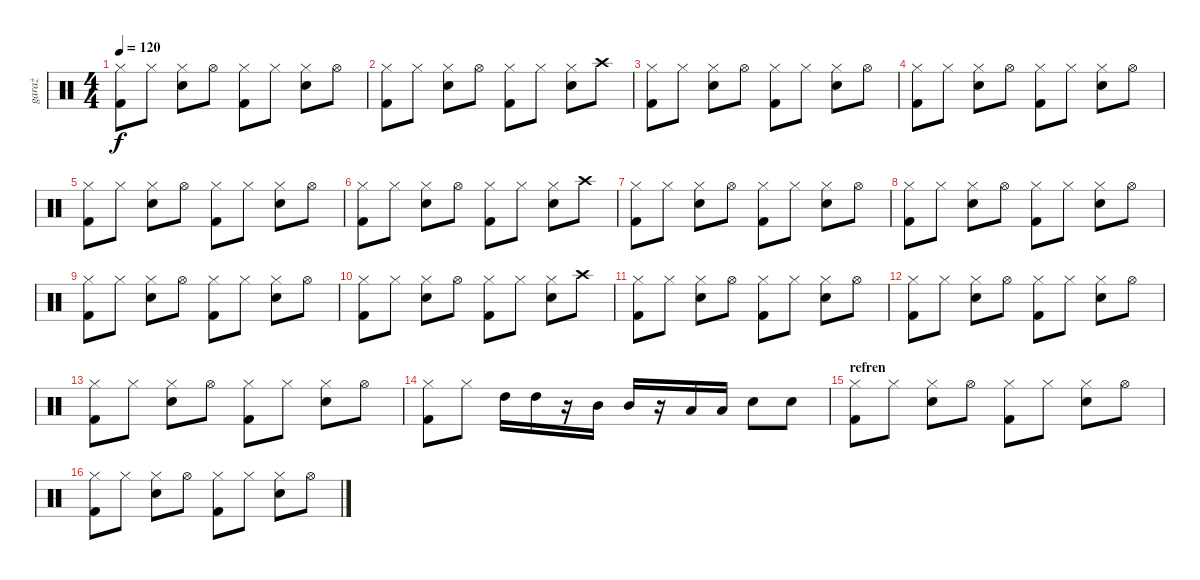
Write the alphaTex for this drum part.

\track ("garaż" "garaż") {instrument percussion}
\staff {score}
\articulation defaults
\ts (4 4)
\tempo 120
\clef neutral
\ks c
("Hi-Hat (closed)" "Kick (hit) 2").8{dy f} "Hi-Hat (closed)".8 ("Hi-Hat (closed)" "Snare (hit) 2").8 "Hi-Hat (open)".8 ("Hi-Hat (closed)" "Kick (hit) 2").8 "Hi-Hat (closed)".8 ("Hi-Hat (closed)" "Snare (hit) 2").8 "Hi-Hat (open)".8 |
("Hi-Hat (closed)" "Kick (hit) 2").8 "Hi-Hat (closed)".8 ("Hi-Hat (closed)" "Snare (hit) 2").8 "Hi-Hat (open)".8 ("Hi-Hat (closed)" "Kick (hit) 2").8 "Hi-Hat (closed)".8 ("Hi-Hat (closed)" "Snare (hit) 2").8 "Crash high (hit)".8 |
("Hi-Hat (closed)" "Kick (hit) 2").8 "Hi-Hat (closed)".8 ("Hi-Hat (closed)" "Snare (hit) 2").8 "Hi-Hat (open)".8 ("Hi-Hat (closed)" "Kick (hit) 2").8 "Hi-Hat (closed)".8 ("Hi-Hat (closed)" "Snare (hit) 2").8 "Hi-Hat (open)".8 |
("Hi-Hat (closed)" "Kick (hit) 2").8 "Hi-Hat (closed)".8 ("Hi-Hat (closed)" "Snare (hit) 2").8 "Hi-Hat (open)".8 ("Hi-Hat (closed)" "Kick (hit) 2").8 "Hi-Hat (closed)".8 ("Hi-Hat (closed)" "Snare (hit) 2").8 "Hi-Hat (open)".8 |
("Hi-Hat (closed)" "Kick (hit) 2").8 "Hi-Hat (closed)".8 ("Hi-Hat (closed)" "Snare (hit) 2").8 "Hi-Hat (open)".8 ("Hi-Hat (closed)" "Kick (hit) 2").8 "Hi-Hat (closed)".8 ("Hi-Hat (closed)" "Snare (hit) 2").8 "Hi-Hat (open)".8 |
("Hi-Hat (closed)" "Kick (hit) 2").8 "Hi-Hat (closed)".8 ("Hi-Hat (closed)" "Snare (hit) 2").8 "Hi-Hat (open)".8 ("Hi-Hat (closed)" "Kick (hit) 2").8 "Hi-Hat (closed)".8 ("Hi-Hat (closed)" "Snare (hit) 2").8 "Crash high (hit)".8 |
("Hi-Hat (closed)" "Kick (hit) 2").8 "Hi-Hat (closed)".8 ("Hi-Hat (closed)" "Snare (hit) 2").8 "Hi-Hat (open)".8 ("Hi-Hat (closed)" "Kick (hit) 2").8 "Hi-Hat (closed)".8 ("Hi-Hat (closed)" "Snare (hit) 2").8 "Hi-Hat (open)".8 |
("Hi-Hat (closed)" "Kick (hit) 2").8 "Hi-Hat (closed)".8 ("Hi-Hat (closed)" "Snare (hit) 2").8 "Hi-Hat (open)".8 ("Hi-Hat (closed)" "Kick (hit) 2").8 "Hi-Hat (closed)".8 ("Hi-Hat (closed)" "Snare (hit) 2").8 "Hi-Hat (open)".8 |
("Hi-Hat (closed)" "Kick (hit) 2").8 "Hi-Hat (closed)".8 ("Hi-Hat (closed)" "Snare (hit) 2").8 "Hi-Hat (open)".8 ("Hi-Hat (closed)" "Kick (hit) 2").8 "Hi-Hat (closed)".8 ("Hi-Hat (closed)" "Snare (hit) 2").8 "Hi-Hat (open)".8 |
("Hi-Hat (closed)" "Kick (hit) 2").8 "Hi-Hat (closed)".8 ("Hi-Hat (closed)" "Snare (hit) 2").8 "Hi-Hat (open)".8 ("Hi-Hat (closed)" "Kick (hit) 2").8 "Hi-Hat (closed)".8 ("Hi-Hat (closed)" "Snare (hit) 2").8 "Crash high (hit)".8 |
("Hi-Hat (closed)" "Kick (hit) 2").8 "Hi-Hat (closed)".8 ("Hi-Hat (closed)" "Snare (hit) 2").8 "Hi-Hat (open)".8 ("Hi-Hat (closed)" "Kick (hit) 2").8 "Hi-Hat (closed)".8 ("Hi-Hat (closed)" "Snare (hit) 2").8 "Hi-Hat (open)".8 |
("Hi-Hat (closed)" "Kick (hit) 2").8 "Hi-Hat (closed)".8 ("Hi-Hat (closed)" "Snare (hit) 2").8 "Hi-Hat (open)".8 ("Hi-Hat (closed)" "Kick (hit) 2").8 "Hi-Hat (closed)".8 ("Hi-Hat (closed)" "Snare (hit) 2").8 "Hi-Hat (open)".8 |
("Hi-Hat (closed)" "Kick (hit) 2").8 "Hi-Hat (closed)".8 ("Hi-Hat (closed)" "Snare (hit) 2").8 "Hi-Hat (open)".8 ("Hi-Hat (closed)" "Kick (hit) 2").8 "Hi-Hat (closed)".8 ("Hi-Hat (closed)" "Snare (hit) 2").8 "Hi-Hat (open)".8 |
("Hi-Hat (closed)" "Kick (hit) 2").8 "Hi-Hat (closed)".8 "High Tom (hit)".16 "High Tom (hit)".16 r.16 "Mid Tom (hit)".16 "Mid Tom (hit)".16 r.16 "Low Tom (hit)".16 "Low Tom (hit)".16 "Snare (hit) 2".8 "Snare (hit) 2".8 |
\section ("" "refren")
("Hi-Hat (closed)" "Kick (hit) 2").8 "Hi-Hat (closed)".8 ("Hi-Hat (closed)" "Snare (hit) 2").8 "Hi-Hat (open)".8 ("Hi-Hat (closed)" "Kick (hit) 2").8 "Hi-Hat (closed)".8 ("Hi-Hat (closed)" "Snare (hit) 2").8 "Hi-Hat (open)".8 |
("Hi-Hat (closed)" "Kick (hit) 2").8 "Hi-Hat (closed)".8 ("Hi-Hat (closed)" "Snare (hit) 2").8 "Hi-Hat (open)".8 ("Hi-Hat (closed)" "Kick (hit) 2").8 "Hi-Hat (closed)".8 ("Hi-Hat (closed)" "Snare (hit) 2").8 "Hi-Hat (open)".8
